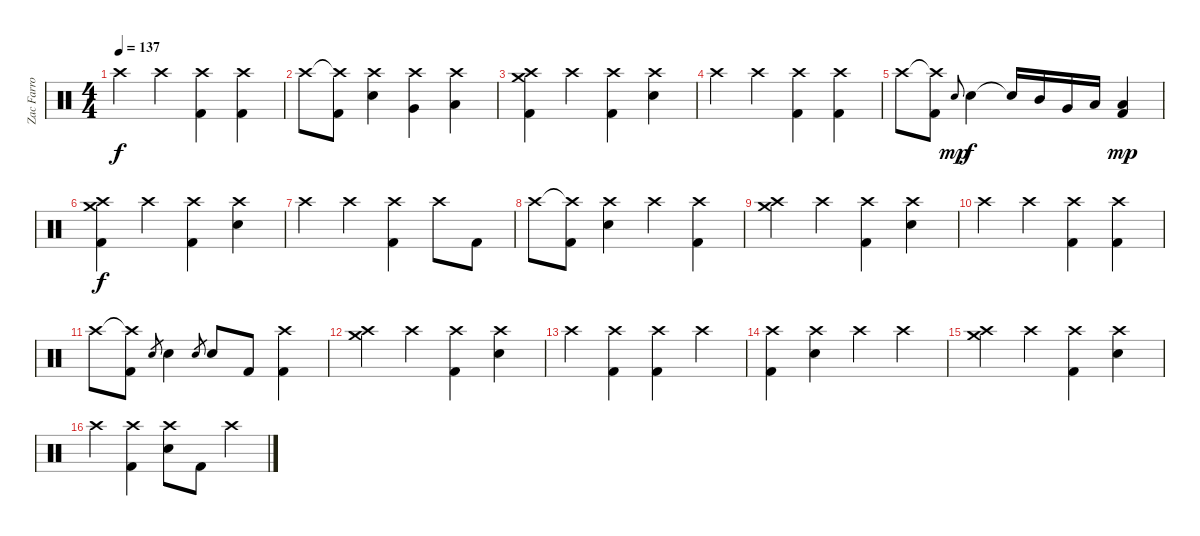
\track ("Zac Farro" "Zac Farro") {instrument percussion}
\staff
\articulation defaults
\ts (4 4)
\tempo 137
\clef neutral
\ks c "Crash high (hit)".4{dy f} "Crash high (hit)".4
("Crash high (hit)" "Kick (hit) 2").4 ("Crash high (hit)" "Kick (hit) 2").4 |
"Crash high (hit)".8 ("Crash high (hit)"{t} "Kick (hit) 2").8 ("Crash high (hit)" "Electric Snare (hit)").4 ("Crash high (hit)" "Very Low Tom (hit)").4 ("Crash high (hit)" "Low Floor Tom (hit)").4 |
("Crash high (hit)" "Crash medium (hit)" "Kick (hit) 2").4 "Crash high (hit)".4 ("Crash high (hit)" "Kick (hit) 2").4 ("Crash high (hit)" "Electric Snare (hit)").4 |
"Crash high (hit)".4 "Crash high (hit)".4 ("Crash high (hit)" "Kick (hit) 2").4 ("Crash high (hit)" "Kick (hit) 2").4 |
"Crash high (hit)".8 ("Crash high (hit)"{t} "Kick (hit) 2").8 "Electric Snare (hit)".8{gr onbeat dy mp} "Electric Snare (hit)".4{dy f} "Snare (hit)"{t}.16 "Mid Tom (hit)".16 "Very Low Tom (hit)".16 "Low Tom (hit)".16 ("Low Floor Tom (hit)" "Kick (hit) 2").4{dy mp} |
("Crash high (hit)" "Crash medium (hit)" "Kick (hit) 2").4{dy f} "Crash high (hit)".4 ("Crash high (hit)" "Kick (hit) 2").4 ("Crash high (hit)" "Electric Snare (hit)").4 |
"Crash high (hit)".4 "Crash high (hit)".4 ("Crash high (hit)" "Kick (hit) 2").4 "Crash high (hit)".8 "Kick (hit) 2".8 |
"Crash high (hit)".8 ("Crash high (hit)"{t} "Kick (hit) 2").8 ("Crash high (hit)" "Electric Snare (hit)").4 "Crash high (hit)".4 ("Crash high (hit)" "Kick (hit) 2").4 |
("Crash high (hit)" "Crash medium (hit)").4 "Crash high (hit)".4 ("Crash high (hit)" "Kick (hit) 2").4 ("Crash high (hit)" "Electric Snare (hit)").4 |
"Crash high (hit)".4 "Crash high (hit)".4 ("Crash high (hit)" "Kick (hit) 2").4 ("Crash high (hit)" "Kick (hit) 2").4 |
"Crash high (hit)".8 ("Crash high (hit)"{t} "Kick (hit) 2").8 "Electric Snare (hit)".8{gr} "Electric Snare (hit)".4 "Electric Snare (hit)".8{gr} "Electric Snare (hit)".8 "Kick (hit) 2".8 ("Crash high (hit)" "Kick (hit) 2").4 |
("Crash high (hit)" "Crash medium (hit)").4 "Crash high (hit)".4 ("Crash high (hit)" "Kick (hit) 2").4 ("Crash high (hit)" "Electric Snare (hit)").4 |
"Crash high (hit)".4 ("Crash high (hit)" "Kick (hit) 2").4 ("Crash high (hit)" "Kick (hit) 2").4 "Crash high (hit)".4 |
("Crash high (hit)" "Kick (hit) 2").4 ("Crash high (hit)" "Electric Snare (hit)").4 "Crash high (hit)".4 "Crash high (hit)".4 |
("Crash high (hit)" "Crash medium (hit)").4 "Crash high (hit)".4 ("Crash high (hit)" "Kick (hit) 2").4 ("Crash high (hit)" "Electric Snare (hit)").4 |
"Crash high (hit)".4 ("Crash high (hit)" "Kick (hit) 2").4 ("Crash high (hit)" "Electric Snare (hit)").8 "Kick (hit) 2".8 "Crash high (hit)".4
